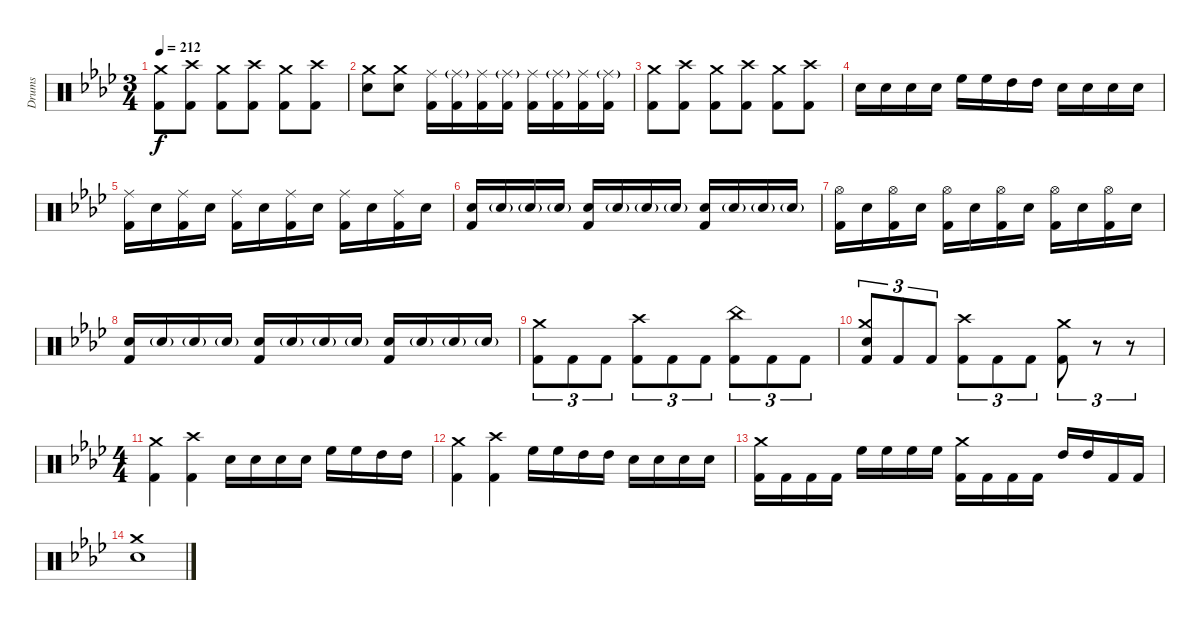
\bracketExtendMode groupsimilarinstruments
\otherSystemsTrackNameOrientation horizontal
\track ("Guyot Begin-Benoit" "Drums") {instrument percussion}
\staff {score}
\articulation defaults
\ts (3 4)
\tempo 212
\clef neutral
\ks ab
("Crash medium (hit)"{acc forcenatural} "Kick (hit) 2"{acc forcenatural}).8{dy f beam Down} ("Crash high (hit)"{acc forcenatural} "Kick (hit) 2"{acc forcenatural}).8{beam Down} ("Crash medium (hit)"{acc forcenatural} "Kick (hit) 2"{acc forcenatural}).8{beam Down} ("Crash high (hit)"{acc forcenatural} "Kick (hit) 2"{acc forcenatural}).8{beam Down} ("Crash medium (hit)"{acc forcenatural} "Kick (hit) 2"{acc forcenatural}).8{beam Down} ("Crash high (hit)"{acc forcenatural} "Kick (hit) 2"{acc forcenatural}).8{beam Down} |
("Crash medium (hit)"{acc forcenatural} "Snare (hit) 2"{acc forcenatural}).8{beam Down} ("Crash medium (hit)"{acc forcenatural} "Snare (hit) 2"{acc forcenatural}).8{beam Down} ("Ride (middle)"{acc forcenatural} "Kick (hit) 2"{acc forcenatural}).16{beam Down} ("Ride (middle)"{g acc forcenatural} "Kick (hit) 2"{acc forcenatural}).16{beam Down} ("Ride (middle)"{acc forcenatural} "Kick (hit) 2"{acc forcenatural}).16{beam Down} ("Ride (middle)"{g acc forcenatural} "Kick (hit) 2"{acc forcenatural}).16{beam Down} ("Ride (middle)"{acc forcenatural} "Kick (hit) 2"{acc forcenatural}).16{beam Down} ("Ride (middle)"{g acc forcenatural} "Kick (hit) 2"{acc forcenatural}).16{beam Down} ("Ride (middle)"{acc forcenatural} "Kick (hit) 2"{acc forcenatural}).16{beam Down} ("Ride (middle)"{g acc forcenatural} "Kick (hit) 2"{acc forcenatural}).16{beam Down} |
("Crash medium (hit)"{acc forcenatural} "Kick (hit) 2"{acc forcenatural}).8{beam Down} ("Crash high (hit)"{acc forcenatural} "Kick (hit) 2"{acc forcenatural}).8{beam Down} ("Crash medium (hit)"{acc forcenatural} "Kick (hit) 2"{acc forcenatural}).8{beam Down} ("Crash high (hit)"{acc forcenatural} "Kick (hit) 2"{acc forcenatural}).8{beam Down} ("Crash medium (hit)"{acc forcenatural} "Kick (hit) 2"{acc forcenatural}).8{beam Down} ("Crash high (hit)"{acc forcenatural} "Kick (hit) 2"{acc forcenatural}).8{beam Down} |
"Snare (hit) 2"{acc forcenatural}.16{beam Down} "Snare (hit) 2"{acc forcenatural}.16{beam Down} "Snare (hit) 2"{acc forcenatural}.16{beam Down} "Snare (hit) 2"{acc forcenatural}.16{beam Down} "High Floor Tom (hit)"{acc forcenatural}.16{beam Down} "High Floor Tom (hit)"{acc forcenatural}.16{beam Down} "High Tom (hit)"{acc forcenatural}.16{beam Down} "High Tom (hit)"{acc forcenatural}.16{beam Down} "Snare (hit) 2"{acc forcenatural}.16{beam Down} "Snare (hit) 2"{acc forcenatural}.16{beam Down} "Snare (hit) 2"{acc forcenatural}.16{beam Down} "Snare (hit) 2"{acc forcenatural}.16{beam Down} |
("Ride (middle)"{acc forcenatural} "Kick (hit) 2"{acc forcenatural}).16{beam Down} "Snare (hit) 2"{acc forcenatural}.16{beam Down} ("Ride (middle)"{acc forcenatural} "Kick (hit) 2"{acc forcenatural}).16{beam Down} "Snare (hit) 2"{acc forcenatural}.16{beam Down} ("Ride (middle)"{acc forcenatural} "Kick (hit) 2"{acc forcenatural}).16{beam Down} "Snare (hit) 2"{acc forcenatural}.16{beam Down} ("Ride (middle)"{acc forcenatural} "Kick (hit) 2"{acc forcenatural}).16{beam Down} "Snare (hit) 2"{acc forcenatural}.16{beam Down} ("Ride (middle)"{acc forcenatural} "Kick (hit) 2"{acc forcenatural}).16{beam Down} "Snare (hit) 2"{acc forcenatural}.16{beam Down} ("Ride (middle)"{acc forcenatural} "Kick (hit) 2"{acc forcenatural}).16{beam Down} "Snare (hit) 2"{acc forcenatural}.16{beam Down} |
("Snare (hit) 2"{acc forcenatural} "Kick (hit) 2"{acc forcenatural}).16{beam Up} "Snare (hit) 2"{g acc forcenatural}.16{beam Up} "Snare (hit) 2"{g acc forcenatural}.16{beam Up} "Snare (hit) 2"{g acc forcenatural}.16{beam Up} ("Snare (hit) 2"{acc forcenatural} "Kick (hit) 2"{acc forcenatural}).16{beam Up} "Snare (hit) 2"{g acc forcenatural}.16{beam Up} "Snare (hit) 2"{g acc forcenatural}.16{beam Up} "Snare (hit) 2"{g acc forcenatural}.16{beam Up} ("Snare (hit) 2"{acc forcenatural} "Kick (hit) 2"{acc forcenatural}).16{beam Up} "Snare (hit) 2"{g acc forcenatural}.16{beam Up} "Snare (hit) 2"{g acc forcenatural}.16{beam Up} "Snare (hit) 2"{g acc forcenatural}.16{beam Up} |
("Hi-Hat (open)"{acc forcenatural} "Kick (hit) 2"{acc forcenatural}).16{beam Down} "Snare (hit) 2"{acc forcenatural}.16{beam Down} ("Hi-Hat (open)"{acc forcenatural} "Kick (hit) 2"{acc forcenatural}).16{beam Down} "Snare (hit) 2"{acc forcenatural}.16{beam Down} ("Hi-Hat (open)"{acc forcenatural} "Kick (hit) 2"{acc forcenatural}).16{beam Down} "Snare (hit) 2"{acc forcenatural}.16{beam Down} ("Hi-Hat (open)"{acc forcenatural} "Kick (hit) 2"{acc forcenatural}).16{beam Down} "Snare (hit) 2"{acc forcenatural}.16{beam Down} ("Hi-Hat (open)"{acc forcenatural} "Kick (hit) 2"{acc forcenatural}).16{beam Down} "Snare (hit) 2"{acc forcenatural}.16{beam Down} ("Hi-Hat (open)"{acc forcenatural} "Kick (hit) 2"{acc forcenatural}).16{beam Down} "Snare (hit) 2"{acc forcenatural}.16{beam Down} |
("Snare (hit) 2"{acc forcenatural} "Kick (hit) 2"{acc forcenatural}).16{beam Up} "Snare (hit) 2"{g acc forcenatural}.16{beam Up} "Snare (hit) 2"{g acc forcenatural}.16{beam Up} "Snare (hit) 2"{g acc forcenatural}.16{beam Up} ("Snare (hit) 2"{acc forcenatural} "Kick (hit) 2"{acc forcenatural}).16{beam Up} "Snare (hit) 2"{g acc forcenatural}.16{beam Up} "Snare (hit) 2"{g acc forcenatural}.16{beam Up} "Snare (hit) 2"{g acc forcenatural}.16{beam Up} ("Snare (hit) 2"{acc forcenatural} "Kick (hit) 2"{acc forcenatural}).16{beam Up} "Snare (hit) 2"{g acc forcenatural}.16{beam Up} "Snare (hit) 2"{g acc forcenatural}.16{beam Up} "Snare (hit) 2"{g acc forcenatural}.16{beam Up} |
("Crash medium (hit)"{acc forcenatural} "Kick (hit) 2"{acc forcenatural}).8{tu (3 2) beam Down} "Kick (hit) 2"{acc forcenatural}.8{tu (3 2) beam Down} "Kick (hit) 2"{acc forcenatural}.8{tu (3 2) beam Down} ("Crash high (hit)"{acc forcenatural} "Kick (hit) 2"{acc forcenatural}).8{tu (3 2) beam Down} "Kick (hit) 2"{acc forcenatural}.8{tu (3 2) beam Down} "Kick (hit) 2"{acc forcenatural}.8{tu (3 2) beam Down} ("China (hit)"{acc forcenatural} "Kick (hit) 2"{acc forcenatural}).8{tu (3 2) beam Down} "Kick (hit) 2"{acc forcenatural}.8{tu (3 2) beam Down} "Kick (hit) 2"{acc forcenatural}.8{tu (3 2) beam Down} |
("Crash medium (hit)"{acc forcenatural} "Snare (hit) 2"{acc forcenatural} "Kick (hit) 2"{acc forcenatural}).8{tu (3 2) beam Up} "Kick (hit) 2"{acc forcenatural}.8{tu (3 2) beam Up} "Kick (hit) 2"{acc forcenatural}.8{tu (3 2) beam Up} ("Crash high (hit)"{acc forcenatural} "Kick (hit) 2"{acc forcenatural}).8{tu (3 2) beam Down} "Kick (hit) 2"{acc forcenatural}.8{tu (3 2) beam Down} "Kick (hit) 2"{acc forcenatural}.8{tu (3 2) beam Down} ("Crash medium (hit)"{acc forcenatural} "Kick (hit) 2"{acc forcenatural}).8{tu (3 2) beam Down} r.8{tu (3 2) beam Down} r.8{tu (3 2) beam Down} |
\ts (4 4)
\beaming (8 2 2 2 2)
("Crash medium (hit)"{acc forcenatural} "Kick (hit) 2"{acc forcenatural}).4{beam Down} ("Crash high (hit)"{acc forcenatural} "Kick (hit) 2"{acc forcenatural}).4{beam Down} "Snare (hit) 2"{acc forcenatural}.16{beam Down} "Snare (hit) 2"{acc forcenatural}.16{beam Down} "Snare (hit) 2"{acc forcenatural}.16{beam Down} "Snare (hit) 2"{acc forcenatural}.16{beam Down} "High Floor Tom (hit)"{acc forcenatural}.16{beam Down} "High Floor Tom (hit)"{acc forcenatural}.16{beam Down} "High Tom (hit)"{acc forcenatural}.16{beam Down} "High Tom (hit)"{acc forcenatural}.16{beam Down} |
("Crash medium (hit)"{acc forcenatural} "Kick (hit) 2"{acc forcenatural}).4{beam Down} ("Crash high (hit)"{acc forcenatural} "Kick (hit) 2"{acc forcenatural}).4{beam Down} "High Floor Tom (hit)"{acc forcenatural}.16{beam Down} "High Floor Tom (hit)"{acc forcenatural}.16{beam Down} "High Tom (hit)"{acc forcenatural}.16{beam Down} "High Tom (hit)"{acc forcenatural}.16{beam Down} "Snare (hit) 2"{acc forcenatural}.16{beam Down} "Snare (hit) 2"{acc forcenatural}.16{beam Down} "Snare (hit) 2"{acc forcenatural}.16{beam Down} "Snare (hit) 2"{acc forcenatural}.16{beam Down} |
("Crash medium (hit)"{acc forcenatural} "Kick (hit) 2"{acc forcenatural}).16{beam Down} "Kick (hit) 2"{acc forcenatural}.16{beam Down} "Kick (hit) 2"{acc forcenatural}.16{beam Down} "Kick (hit) 2"{acc forcenatural}.16{beam Down} "High Floor Tom (hit)"{acc forcenatural}.16{beam Down} "High Floor Tom (hit)"{acc forcenatural}.16{beam Down} "High Floor Tom (hit)"{acc forcenatural}.16{beam Down} "High Floor Tom (hit)"{acc forcenatural}.16{beam Down} ("Crash medium (hit)"{acc forcenatural} "Kick (hit) 2"{acc forcenatural}).16{beam Down} "Kick (hit) 2"{acc forcenatural}.16{beam Down} "Kick (hit) 2"{acc forcenatural}.16{beam Down} "Kick (hit) 2"{acc forcenatural}.16{beam Down} "High Tom (hit)"{acc forcenatural}.16{beam Up} "High Tom (hit)"{acc forcenatural}.16{beam Up} "Kick (hit) 2"{acc forcenatural}.16{beam Up} "Kick (hit) 2"{acc forcenatural}.16{beam Up} |
("Crash medium (hit)"{acc forcenatural} "Snare (hit) 2"{acc forcenatural}).1{beam Down}
